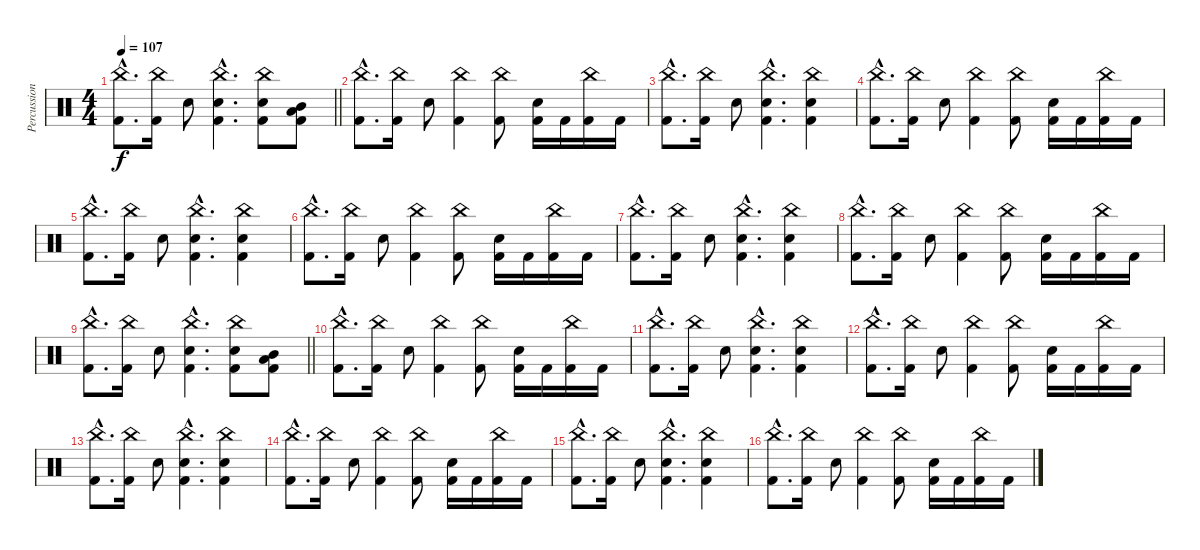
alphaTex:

\track ("Percussion" "Percussion") {instrument percussion}
\staff {score}
\articulation defaults
\ts (4 4)
\tempo 107
\clef neutral
\barLineRight lightlight
\ks c
("China (hit)"{hac} "Kick (hit) 2"{hac}).8{d dy f} ("China (hit)" "Kick (hit) 2").16 "Electric Snare (hit)".8 ("China (hit)"{hac} "Electric Snare (hit)"{hac} "Kick (hit) 2"{hac}).4{d} ("China (hit)" "Electric Snare (hit)" "Kick (hit) 2").8 ("Mid Tom (hit)" "Low Tom (hit)" "Kick (hit) 2").8 |
("China (hit)"{hac} "Kick (hit) 2"{hac}).8{d} ("China (hit)" "Kick (hit) 2").16 "Electric Snare (hit)".8 ("China (hit)" "Kick (hit) 2").4 ("China (hit)" "Kick (hit) 2").8 ("Electric Snare (hit)" "Kick (hit) 2").16 "Kick (hit) 2".16 ("China (hit)" "Kick (hit) 2").16 "Kick (hit) 2".16 |
("China (hit)"{hac} "Kick (hit) 2"{hac}).8{d} ("China (hit)" "Kick (hit) 2").16 "Electric Snare (hit)".8 ("China (hit)"{hac} "Electric Snare (hit)"{hac} "Kick (hit) 2"{hac}).4{d} ("China (hit)" "Electric Snare (hit)" "Kick (hit) 2").4 |
("China (hit)"{hac} "Kick (hit) 2"{hac}).8{d} ("China (hit)" "Kick (hit) 2").16 "Electric Snare (hit)".8 ("China (hit)" "Kick (hit) 2").4 ("China (hit)" "Kick (hit) 2").8 ("Electric Snare (hit)" "Kick (hit) 2").16 "Kick (hit) 2".16 ("China (hit)" "Kick (hit) 2").16 "Kick (hit) 2".16 |
("China (hit)"{hac} "Kick (hit) 2"{hac}).8{d} ("China (hit)" "Kick (hit) 2").16 "Electric Snare (hit)".8 ("China (hit)"{hac} "Electric Snare (hit)"{hac} "Kick (hit) 2"{hac}).4{d} ("China (hit)" "Electric Snare (hit)" "Kick (hit) 2").4 |
("China (hit)"{hac} "Kick (hit) 2"{hac}).8{d} ("China (hit)" "Kick (hit) 2").16 "Electric Snare (hit)".8 ("China (hit)" "Kick (hit) 2").4 ("China (hit)" "Kick (hit) 2").8 ("Electric Snare (hit)" "Kick (hit) 2").16 "Kick (hit) 2".16 ("China (hit)" "Kick (hit) 2").16 "Kick (hit) 2".16 |
("China (hit)"{hac} "Kick (hit) 2"{hac}).8{d} ("China (hit)" "Kick (hit) 2").16 "Electric Snare (hit)".8 ("China (hit)"{hac} "Electric Snare (hit)"{hac} "Kick (hit) 2"{hac}).4{d} ("China (hit)" "Electric Snare (hit)" "Kick (hit) 2").4 |
("China (hit)"{hac} "Kick (hit) 2"{hac}).8{d} ("China (hit)" "Kick (hit) 2").16 "Electric Snare (hit)".8 ("China (hit)" "Kick (hit) 2").4 ("China (hit)" "Kick (hit) 2").8 ("Electric Snare (hit)" "Kick (hit) 2").16 "Kick (hit) 2".16 ("China (hit)" "Kick (hit) 2").16 "Kick (hit) 2".16 |
\barLineRight lightlight
("China (hit)"{hac} "Kick (hit) 2"{hac}).8{d} ("China (hit)" "Kick (hit) 2").16 "Electric Snare (hit)".8 ("China (hit)"{hac} "Electric Snare (hit)"{hac} "Kick (hit) 2"{hac}).4{d} ("China (hit)" "Electric Snare (hit)" "Kick (hit) 2").8 ("Mid Tom (hit)" "Low Tom (hit)" "Kick (hit) 2").8 |
("China (hit)"{hac} "Kick (hit) 2"{hac}).8{d} ("China (hit)" "Kick (hit) 2").16 "Electric Snare (hit)".8 ("China (hit)" "Kick (hit) 2").4 ("China (hit)" "Kick (hit) 2").8 ("Electric Snare (hit)" "Kick (hit) 2").16 "Kick (hit) 2".16 ("China (hit)" "Kick (hit) 2").16 "Kick (hit) 2".16 |
("China (hit)"{hac} "Kick (hit) 2"{hac}).8{d} ("China (hit)" "Kick (hit) 2").16 "Electric Snare (hit)".8 ("China (hit)"{hac} "Electric Snare (hit)"{hac} "Kick (hit) 2"{hac}).4{d} ("China (hit)" "Electric Snare (hit)" "Kick (hit) 2").4 |
("China (hit)"{hac} "Kick (hit) 2"{hac}).8{d} ("China (hit)" "Kick (hit) 2").16 "Electric Snare (hit)".8 ("China (hit)" "Kick (hit) 2").4 ("China (hit)" "Kick (hit) 2").8 ("Electric Snare (hit)" "Kick (hit) 2").16 "Kick (hit) 2".16 ("China (hit)" "Kick (hit) 2").16 "Kick (hit) 2".16 |
("China (hit)"{hac} "Kick (hit) 2"{hac}).8{d} ("China (hit)" "Kick (hit) 2").16 "Electric Snare (hit)".8 ("China (hit)"{hac} "Electric Snare (hit)"{hac} "Kick (hit) 2"{hac}).4{d} ("China (hit)" "Electric Snare (hit)" "Kick (hit) 2").4 |
("China (hit)"{hac} "Kick (hit) 2"{hac}).8{d} ("China (hit)" "Kick (hit) 2").16 "Electric Snare (hit)".8 ("China (hit)" "Kick (hit) 2").4 ("China (hit)" "Kick (hit) 2").8 ("Electric Snare (hit)" "Kick (hit) 2").16 "Kick (hit) 2".16 ("China (hit)" "Kick (hit) 2").16 "Kick (hit) 2".16 |
("China (hit)"{hac} "Kick (hit) 2"{hac}).8{d} ("China (hit)" "Kick (hit) 2").16 "Electric Snare (hit)".8 ("China (hit)"{hac} "Electric Snare (hit)"{hac} "Kick (hit) 2"{hac}).4{d} ("China (hit)" "Electric Snare (hit)" "Kick (hit) 2").4 |
("China (hit)"{hac} "Kick (hit) 2"{hac}).8{d} ("China (hit)" "Kick (hit) 2").16 "Electric Snare (hit)".8 ("China (hit)" "Kick (hit) 2").4 ("China (hit)" "Kick (hit) 2").8 ("Electric Snare (hit)" "Kick (hit) 2").16 "Kick (hit) 2".16 ("China (hit)" "Kick (hit) 2").16 "Kick (hit) 2".16
